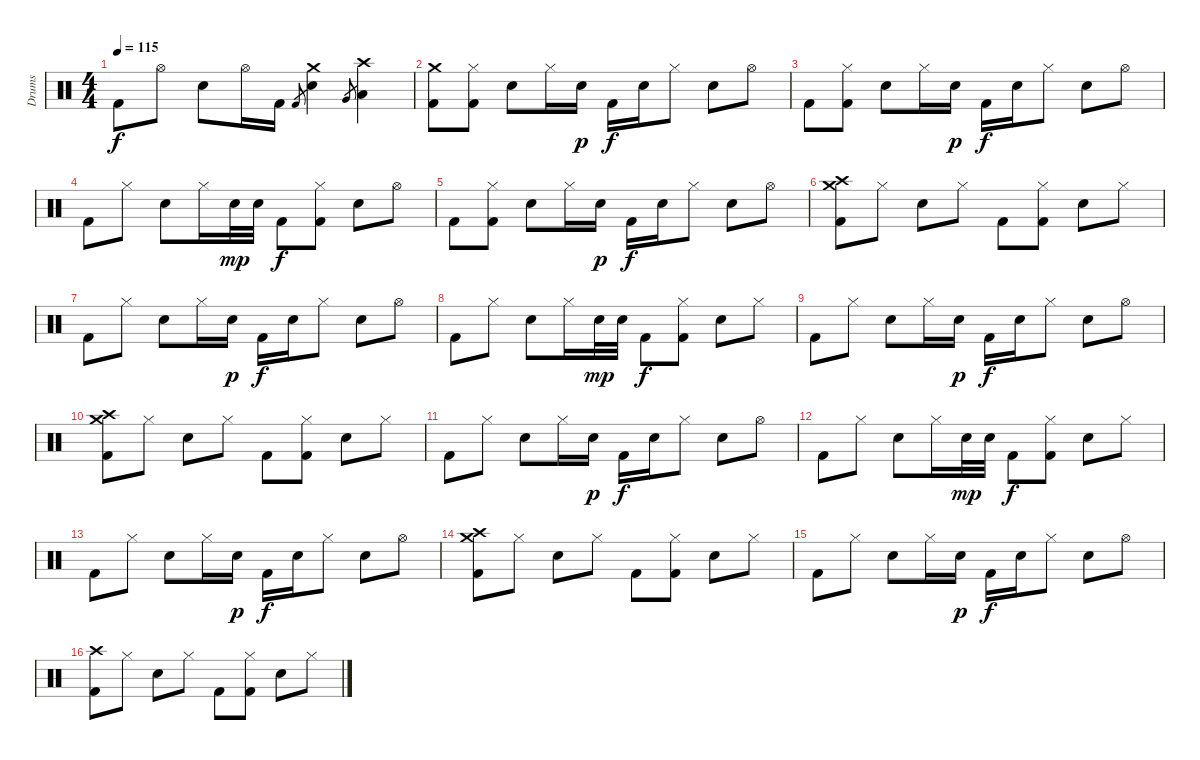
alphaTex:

\track ("Drums" "Drums") {instrument percussion}
\staff {score}
\articulation defaults
\ts (4 4)
\tempo 115
\clef neutral
\ks c "Kick (hit) 2".8{dy f} "Hi-Hat (open)".8 "Snare (hit) 2".8 "Hi-Hat (open)".16 "Kick (hit) 2".16 "Kick (hit) 2".8{gr}
("Crash medium (hit)" "Snare (hit) 2").4 "Very Low Tom (hit)".8{gr} ("Crash high (hit)" "Low Tom (hit)").4 |
("Crash medium (hit)" "Kick (hit) 2").8 ("Hi-Hat (closed)" "Kick (hit) 2").8 "Snare (hit) 2".8 "Hi-Hat (closed)".16 "Snare (hit) 2".16{dy p} "Kick (hit) 2".16{dy f} "Snare (hit) 2".16 "Hi-Hat (closed)".8 "Snare (hit) 2".8 "Hi-Hat (open)".8 |
"Kick (hit) 2".8 ("Hi-Hat (closed)" "Kick (hit) 2").8 "Snare (hit) 2".8 "Hi-Hat (closed)".16 "Snare (hit) 2".16{dy p} "Kick (hit) 2".16{dy f} "Snare (hit) 2".16 "Hi-Hat (closed)".8 "Snare (hit) 2".8 "Hi-Hat (open)".8 |
"Kick (hit) 2".8 "Hi-Hat (closed)".8 "Snare (hit) 2".8 "Hi-Hat (closed)".16 "Snare (hit) 2".32{dy mp} "Snare (hit) 2".32 "Kick (hit) 2".8{dy f} ("Hi-Hat (closed)" "Kick (hit) 2").8 "Snare (hit) 2".8 "Hi-Hat (open)".8 |
"Kick (hit) 2".8 ("Hi-Hat (closed)" "Kick (hit) 2").8 "Snare (hit) 2".8 "Hi-Hat (closed)".16 "Snare (hit) 2".16{dy p} "Kick (hit) 2".16{dy f} "Snare (hit) 2".16 "Hi-Hat (closed)".8 "Snare (hit) 2".8 "Hi-Hat (open)".8 |
("Crash medium (hit)" "Kick (hit) 2" "Crash high (hit)").8 "Hi-Hat (closed)".8 "Snare (hit) 2".8 "Hi-Hat (closed)".8 "Kick (hit) 2".8 ("Hi-Hat (closed)" "Kick (hit) 2").8 "Snare (hit) 2".8 "Hi-Hat (closed)".8 |
"Kick (hit) 2".8 "Hi-Hat (closed)".8 "Snare (hit) 2".8 "Hi-Hat (closed)".16 "Snare (hit) 2".16{dy p} "Kick (hit) 2".16{dy f} "Snare (hit) 2".16 "Hi-Hat (closed)".8 "Snare (hit) 2".8 "Hi-Hat (open)".8 |
"Kick (hit) 2".8 "Hi-Hat (closed)".8 "Snare (hit) 2".8 "Hi-Hat (closed)".16 "Snare (hit) 2".32{dy mp} "Snare (hit) 2".32 "Kick (hit) 2".8{dy f} ("Hi-Hat (closed)" "Kick (hit) 2").8 "Snare (hit) 2".8 "Hi-Hat (closed)".8 |
"Kick (hit) 2".8 "Hi-Hat (closed)".8 "Snare (hit) 2".8 "Hi-Hat (closed)".16 "Snare (hit) 2".16{dy p} "Kick (hit) 2".16{dy f} "Snare (hit) 2".16 "Hi-Hat (closed)".8 "Snare (hit) 2".8 "Hi-Hat (open)".8 |
("Crash medium (hit)" "Kick (hit) 2" "Crash high (hit)").8 "Hi-Hat (closed)".8 "Snare (hit) 2".8 "Hi-Hat (closed)".8 "Kick (hit) 2".8 ("Hi-Hat (closed)" "Kick (hit) 2").8 "Snare (hit) 2".8 "Hi-Hat (closed)".8 |
"Kick (hit) 2".8 "Hi-Hat (closed)".8 "Snare (hit) 2".8 "Hi-Hat (closed)".16 "Snare (hit) 2".16{dy p} "Kick (hit) 2".16{dy f} "Snare (hit) 2".16 "Hi-Hat (closed)".8 "Snare (hit) 2".8 "Hi-Hat (open)".8 |
"Kick (hit) 2".8 "Hi-Hat (closed)".8 "Snare (hit) 2".8 "Hi-Hat (closed)".16 "Snare (hit) 2".32{dy mp} "Snare (hit) 2".32 "Kick (hit) 2".8{dy f} ("Hi-Hat (closed)" "Kick (hit) 2").8 "Snare (hit) 2".8 "Hi-Hat (closed)".8 |
"Kick (hit) 2".8 "Hi-Hat (closed)".8 "Snare (hit) 2".8 "Hi-Hat (closed)".16 "Snare (hit) 2".16{dy p} "Kick (hit) 2".16{dy f} "Snare (hit) 2".16 "Hi-Hat (closed)".8 "Snare (hit) 2".8 "Hi-Hat (open)".8 |
("Crash medium (hit)" "Kick (hit) 2" "Crash high (hit)").8 "Hi-Hat (closed)".8 "Snare (hit) 2".8 "Hi-Hat (closed)".8 "Kick (hit) 2".8 ("Hi-Hat (closed)" "Kick (hit) 2").8 "Snare (hit) 2".8 "Hi-Hat (closed)".8 |
"Kick (hit) 2".8 "Hi-Hat (closed)".8 "Snare (hit) 2".8 "Hi-Hat (closed)".16 "Snare (hit) 2".16{dy p} "Kick (hit) 2".16{dy f} "Snare (hit) 2".16 "Hi-Hat (closed)".8 "Snare (hit) 2".8 "Hi-Hat (open)".8 |
("Kick (hit) 2" "Crash high (hit)").8 "Hi-Hat (closed)".8 "Snare (hit) 2".8 "Hi-Hat (closed)".8 "Kick (hit) 2".8 ("Hi-Hat (closed)" "Kick (hit) 2").8 "Snare (hit) 2".8 "Hi-Hat (closed)".8
